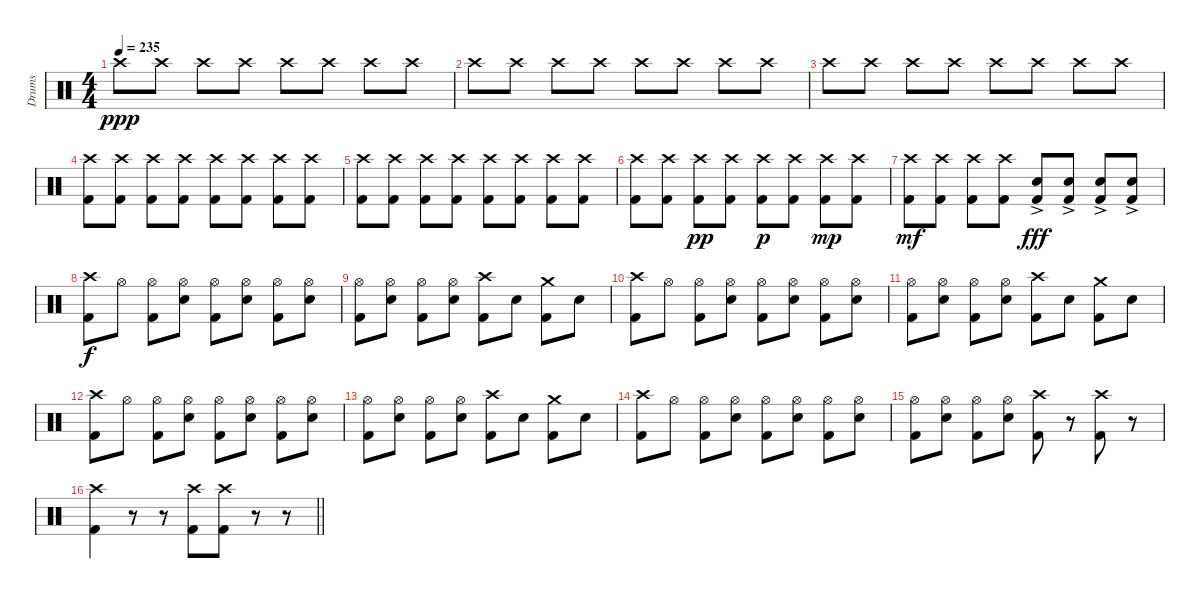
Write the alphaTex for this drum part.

\track ("Drums" "Drums") {instrument percussion}
\staff {score}
\articulation defaults
\ts (4 4)
\tempo 235
\clef neutral
\ks c "Crash high (hit)".8{dy ppp} "Crash high (hit)".8 "Crash high (hit)".8 "Crash high (hit)".8 "Crash high (hit)".8 "Crash high (hit)".8 "Crash high (hit)".8 "Crash high (hit)".8
|
"Crash high (hit)".8 "Crash high (hit)".8 "Crash high (hit)".8 "Crash high (hit)".8 "Crash high (hit)".8 "Crash high (hit)".8 "Crash high (hit)".8 "Crash high (hit)".8 |
"Crash high (hit)".8 "Crash high (hit)".8 "Crash high (hit)".8 "Crash high (hit)".8 "Crash high (hit)".8 "Crash high (hit)".8 "Crash high (hit)".8 "Crash high (hit)".8 |
("Crash high (hit)" "Kick (hit) 2").8 ("Crash high (hit)" "Kick (hit) 2").8 ("Crash high (hit)" "Kick (hit) 2").8 ("Crash high (hit)" "Kick (hit) 2").8 ("Crash high (hit)" "Kick (hit) 2").8 ("Crash high (hit)" "Kick (hit) 2").8 ("Crash high (hit)" "Kick (hit) 2").8 ("Crash high (hit)" "Kick (hit) 2").8 |
("Crash high (hit)" "Kick (hit) 2").8 ("Crash high (hit)" "Kick (hit) 2").8 ("Crash high (hit)" "Kick (hit) 2").8 ("Crash high (hit)" "Kick (hit) 2").8 ("Crash high (hit)" "Kick (hit) 2").8 ("Crash high (hit)" "Kick (hit) 2").8 ("Crash high (hit)" "Kick (hit) 2").8 ("Crash high (hit)" "Kick (hit) 2").8 |
("Crash high (hit)" "Kick (hit) 2").8 ("Crash high (hit)" "Kick (hit) 2").8 ("Crash high (hit)" "Kick (hit) 2").8{dy pp} ("Crash high (hit)" "Kick (hit) 2").8 ("Crash high (hit)" "Kick (hit) 2").8{dy p} ("Crash high (hit)" "Kick (hit) 2").8 ("Crash high (hit)" "Kick (hit) 2").8{dy mp} ("Crash high (hit)" "Kick (hit) 2").8 |
("Crash high (hit)" "Kick (hit) 2").8{dy mf} ("Crash high (hit)" "Kick (hit) 2").8 ("Crash high (hit)" "Kick (hit) 2").8 ("Crash high (hit)" "Kick (hit) 2").8 ("Snare (hit) 2"{ac} "Kick (hit) 2").8{dy fff} ("Snare (hit) 2"{ac} "Kick (hit) 2").8 ("Snare (hit) 2"{ac} "Kick (hit) 2").8 ("Snare (hit) 2"{ac} "Kick (hit) 2").8 |
("Crash high (hit)" "Kick (hit) 2").8{dy f} "Hi-Hat (open)".8 ("Hi-Hat (open)" "Kick (hit) 2").8 ("Hi-Hat (open)" "Snare (hit) 2").8 ("Hi-Hat (open)" "Kick (hit) 2").8 ("Hi-Hat (open)" "Snare (hit) 2").8 ("Hi-Hat (open)" "Kick (hit) 2").8 ("Hi-Hat (open)" "Snare (hit) 2").8 |
("Hi-Hat (open)" "Kick (hit) 2").8 ("Hi-Hat (open)" "Snare (hit) 2").8 ("Hi-Hat (open)" "Kick (hit) 2").8 ("Hi-Hat (open)" "Snare (hit) 2").8 ("Crash high (hit)" "Kick (hit) 2").8 "Snare (hit) 2".8 ("Crash medium (hit)" "Kick (hit) 2").8 "Snare (hit) 2".8 |
("Crash high (hit)" "Kick (hit) 2").8 "Hi-Hat (open)".8 ("Hi-Hat (open)" "Kick (hit) 2").8 ("Hi-Hat (open)" "Snare (hit) 2").8 ("Hi-Hat (open)" "Kick (hit) 2").8 ("Hi-Hat (open)" "Snare (hit) 2").8 ("Hi-Hat (open)" "Kick (hit) 2").8 ("Hi-Hat (open)" "Snare (hit) 2").8 |
("Hi-Hat (open)" "Kick (hit) 2").8 ("Hi-Hat (open)" "Snare (hit) 2").8 ("Hi-Hat (open)" "Kick (hit) 2").8 ("Hi-Hat (open)" "Snare (hit) 2").8 ("Crash high (hit)" "Kick (hit) 2").8 "Snare (hit) 2".8 ("Crash medium (hit)" "Kick (hit) 2").8 "Snare (hit) 2".8 |
("Crash high (hit)" "Kick (hit) 2").8 "Hi-Hat (open)".8 ("Hi-Hat (open)" "Kick (hit) 2").8 ("Hi-Hat (open)" "Snare (hit) 2").8 ("Hi-Hat (open)" "Kick (hit) 2").8 ("Hi-Hat (open)" "Snare (hit) 2").8 ("Hi-Hat (open)" "Kick (hit) 2").8 ("Hi-Hat (open)" "Snare (hit) 2").8 |
("Hi-Hat (open)" "Kick (hit) 2").8 ("Hi-Hat (open)" "Snare (hit) 2").8 ("Hi-Hat (open)" "Kick (hit) 2").8 ("Hi-Hat (open)" "Snare (hit) 2").8 ("Crash high (hit)" "Kick (hit) 2").8 "Snare (hit) 2".8 ("Crash medium (hit)" "Kick (hit) 2").8 "Snare (hit) 2".8 |
("Crash high (hit)" "Kick (hit) 2").8 "Hi-Hat (open)".8 ("Hi-Hat (open)" "Kick (hit) 2").8 ("Hi-Hat (open)" "Snare (hit) 2").8 ("Hi-Hat (open)" "Kick (hit) 2").8 ("Hi-Hat (open)" "Snare (hit) 2").8 ("Hi-Hat (open)" "Kick (hit) 2").8 ("Hi-Hat (open)" "Snare (hit) 2").8 |
("Hi-Hat (open)" "Kick (hit) 2").8 ("Hi-Hat (open)" "Snare (hit) 2").8 ("Hi-Hat (open)" "Kick (hit) 2").8 ("Hi-Hat (open)" "Snare (hit) 2").8 ("Crash high (hit)" "Kick (hit) 2").8 r.8{volume 0} ("Crash high (hit)" "Kick (hit) 2").8{volume 16} r.8{volume 0} |
\barLineRight lightlight
("Crash high (hit)" "Kick (hit) 2").4{volume 16} r.8{volume 0} r.8{volume 16} ("Crash high (hit)" "Kick (hit) 2").8 ("Crash high (hit)" "Kick (hit) 2").8 r.8{volume 0} r.8{volume 16}
